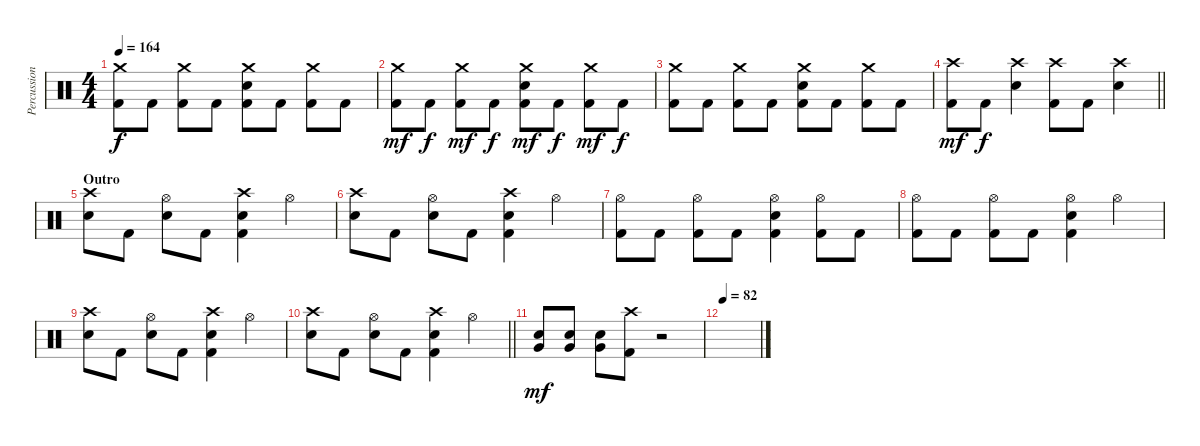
\track ("Percussion" "Percussion") {instrument percussion}
\staff {score}
\articulation defaults
\ts (4 4)
\tempo 164
\clef neutral
\ks c
("Crash medium (hit)" "Kick (hit) 2").8{dy f} "Kick (hit) 2".8 ("Crash medium (hit)" "Kick (hit) 2").8 "Kick (hit) 2".8 ("Crash medium (hit)" "Snare (hit) 2" "Kick (hit) 2").8 "Kick (hit) 2".8 ("Crash medium (hit)" "Kick (hit) 2").8 "Kick (hit) 2".8 |
("Crash medium (hit)" "Kick (hit) 2").8{dy mf} "Kick (hit) 2".8{dy f} ("Crash medium (hit)" "Kick (hit) 2").8{dy mf} "Kick (hit) 2".8{dy f} ("Crash medium (hit)" "Snare (hit) 2" "Kick (hit) 2").8{dy mf} "Kick (hit) 2".8{dy f} ("Crash medium (hit)" "Kick (hit) 2").8{dy mf} "Kick (hit) 2".8{dy f} |
("Crash medium (hit)" "Kick (hit) 2").8 "Kick (hit) 2".8 ("Crash medium (hit)" "Kick (hit) 2").8 "Kick (hit) 2".8 ("Crash medium (hit)" "Snare (hit) 2" "Kick (hit) 2").8 "Kick (hit) 2".8 ("Crash medium (hit)" "Kick (hit) 2").8 "Kick (hit) 2".8 |
\barLineRight lightlight
("Crash high (hit)" "Kick (hit) 2").8{dy mf} "Kick (hit) 2".8{dy f} ("Crash high (hit)" "Snare (hit) 2").4 ("Crash high (hit)" "Kick (hit) 2").8 "Kick (hit) 2".8 ("Crash high (hit)" "Snare (hit) 2").4 |
\section ("" "Outro")
("Crash high (hit)" "Snare (hit) 2").8 "Kick (hit) 2".8 ("Hi-Hat (open)" "Snare (hit) 2").8 "Kick (hit) 2".8 ("Crash high (hit)" "Snare (hit) 2" "Kick (hit) 2").4 "Hi-Hat (open)".4 |
("Crash high (hit)" "Snare (hit) 2").8 "Kick (hit) 2".8 ("Hi-Hat (open)" "Snare (hit) 2").8 "Kick (hit) 2".8 ("Crash high (hit)" "Snare (hit) 2" "Kick (hit) 2").4 "Hi-Hat (open)".4 |
("Hi-Hat (open)" "Kick (hit) 2").8 "Kick (hit) 2".8 ("Hi-Hat (open)" "Kick (hit) 2").8 "Kick (hit) 2".8 ("Hi-Hat (open)" "Snare (hit) 2" "Kick (hit) 2").4 ("Hi-Hat (open)" "Kick (hit) 2").8 "Kick (hit) 2".8 |
("Hi-Hat (open)" "Kick (hit) 2").8 "Kick (hit) 2".8 ("Hi-Hat (open)" "Kick (hit) 2").8 "Kick (hit) 2".8 ("Hi-Hat (open)" "Snare (hit) 2" "Kick (hit) 2").4 "Hi-Hat (open)".4 |
("Crash high (hit)" "Snare (hit) 2").8 "Kick (hit) 2".8 ("Hi-Hat (open)" "Snare (hit) 2").8 "Kick (hit) 2".8 ("Crash high (hit)" "Snare (hit) 2" "Kick (hit) 2").4 "Hi-Hat (open)".4 |
\barLineRight lightlight
("Crash high (hit)" "Snare (hit) 2").8 "Kick (hit) 2".8 ("Hi-Hat (open)" "Snare (hit) 2").8 "Kick (hit) 2".8 ("Crash high (hit)" "Snare (hit) 2" "Kick (hit) 2").4 "Hi-Hat (open)".4 |
("Very Low Tom (hit)" "Snare (hit) 2").8{dy mf} ("Very Low Tom (hit)" "Snare (hit) 2").8 ("Very Low Tom (hit)" "Snare (hit) 2").8 ("Crash high (hit)" "Kick (hit) 2").8 r.2 |
\tempo 82
